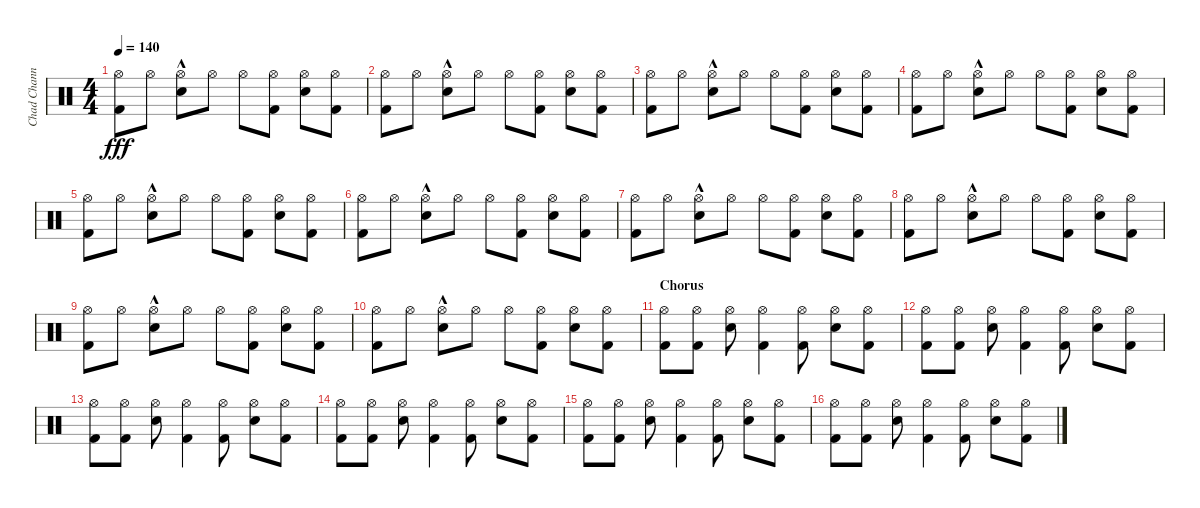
\track ("Chad Channing" "Chad Chann") {instrument percussion}
\staff {score}
\articulation defaults
\ts (4 4)
\tempo 140
\clef neutral
\ks c
("Hi-Hat (open)" "Kick (hit) 2").8{dy fff} "Hi-Hat (open)".8 ("Hi-Hat (open)" "Electric Snare (hit)"{hac}).8 "Hi-Hat (open)".8 "Hi-Hat (open)".8 ("Hi-Hat (open)" "Kick (hit) 2").8 ("Hi-Hat (open)" "Electric Snare (hit)").8 ("Hi-Hat (open)" "Kick (hit) 2").8 |
("Hi-Hat (open)" "Kick (hit) 2").8 "Hi-Hat (open)".8 ("Hi-Hat (open)" "Electric Snare (hit)"{hac}).8 "Hi-Hat (open)".8 "Hi-Hat (open)".8 ("Hi-Hat (open)" "Kick (hit) 2").8 ("Hi-Hat (open)" "Electric Snare (hit)").8 ("Hi-Hat (open)" "Kick (hit) 2").8 |
("Hi-Hat (open)" "Kick (hit) 2").8 "Hi-Hat (open)".8 ("Hi-Hat (open)" "Electric Snare (hit)"{hac}).8 "Hi-Hat (open)".8 "Hi-Hat (open)".8 ("Hi-Hat (open)" "Kick (hit) 2").8 ("Hi-Hat (open)" "Electric Snare (hit)").8 ("Hi-Hat (open)" "Kick (hit) 2").8 |
("Hi-Hat (open)" "Kick (hit) 2").8 "Hi-Hat (open)".8 ("Hi-Hat (open)" "Electric Snare (hit)"{hac}).8 "Hi-Hat (open)".8 "Hi-Hat (open)".8 ("Hi-Hat (open)" "Kick (hit) 2").8 ("Hi-Hat (open)" "Electric Snare (hit)").8 ("Hi-Hat (open)" "Kick (hit) 2").8 |
("Hi-Hat (open)" "Kick (hit) 2").8 "Hi-Hat (open)".8 ("Hi-Hat (open)" "Electric Snare (hit)"{hac}).8 "Hi-Hat (open)".8 "Hi-Hat (open)".8 ("Hi-Hat (open)" "Kick (hit) 2").8 ("Hi-Hat (open)" "Electric Snare (hit)").8 ("Hi-Hat (open)" "Kick (hit) 2").8 |
("Hi-Hat (open)" "Kick (hit) 2").8 "Hi-Hat (open)".8 ("Hi-Hat (open)" "Electric Snare (hit)"{hac}).8 "Hi-Hat (open)".8 "Hi-Hat (open)".8 ("Hi-Hat (open)" "Kick (hit) 2").8 ("Hi-Hat (open)" "Electric Snare (hit)").8 ("Hi-Hat (open)" "Kick (hit) 2").8 |
("Hi-Hat (open)" "Kick (hit) 2").8 "Hi-Hat (open)".8 ("Hi-Hat (open)" "Electric Snare (hit)"{hac}).8 "Hi-Hat (open)".8 "Hi-Hat (open)".8 ("Hi-Hat (open)" "Kick (hit) 2").8 ("Hi-Hat (open)" "Electric Snare (hit)").8 ("Hi-Hat (open)" "Kick (hit) 2").8 |
("Hi-Hat (open)" "Kick (hit) 2").8 "Hi-Hat (open)".8 ("Hi-Hat (open)" "Electric Snare (hit)"{hac}).8 "Hi-Hat (open)".8 "Hi-Hat (open)".8 ("Hi-Hat (open)" "Kick (hit) 2").8 ("Hi-Hat (open)" "Electric Snare (hit)").8 ("Hi-Hat (open)" "Kick (hit) 2").8 |
("Hi-Hat (open)" "Kick (hit) 2").8 "Hi-Hat (open)".8 ("Hi-Hat (open)" "Electric Snare (hit)"{hac}).8 "Hi-Hat (open)".8 "Hi-Hat (open)".8 ("Hi-Hat (open)" "Kick (hit) 2").8 ("Hi-Hat (open)" "Electric Snare (hit)").8 ("Hi-Hat (open)" "Kick (hit) 2").8 |
("Hi-Hat (open)" "Kick (hit) 2").8 "Hi-Hat (open)".8 ("Hi-Hat (open)" "Electric Snare (hit)"{hac}).8 "Hi-Hat (open)".8 "Hi-Hat (open)".8 ("Hi-Hat (open)" "Kick (hit) 2").8 ("Hi-Hat (open)" "Electric Snare (hit)").8 ("Hi-Hat (open)" "Kick (hit) 2").8 |
\section ("" "Chorus")
("Hi-Hat (open)" "Kick (hit) 2").8 ("Hi-Hat (open)" "Kick (hit) 2").8 ("Hi-Hat (open)" "Electric Snare (hit)").8 ("Hi-Hat (open)" "Kick (hit) 2").4 ("Hi-Hat (open)" "Kick (hit) 2").8 ("Hi-Hat (open)" "Electric Snare (hit)").8 ("Hi-Hat (open)" "Kick (hit) 2").8 |
("Hi-Hat (open)" "Kick (hit) 2").8 ("Hi-Hat (open)" "Kick (hit) 2").8 ("Hi-Hat (open)" "Electric Snare (hit)").8 ("Hi-Hat (open)" "Kick (hit) 2").4 ("Hi-Hat (open)" "Kick (hit) 2").8 ("Hi-Hat (open)" "Electric Snare (hit)").8 ("Hi-Hat (open)" "Kick (hit) 2").8 |
("Hi-Hat (open)" "Kick (hit) 2").8 ("Hi-Hat (open)" "Kick (hit) 2").8 ("Hi-Hat (open)" "Electric Snare (hit)").8 ("Hi-Hat (open)" "Kick (hit) 2").4 ("Hi-Hat (open)" "Kick (hit) 2").8 ("Hi-Hat (open)" "Electric Snare (hit)").8 ("Hi-Hat (open)" "Kick (hit) 2").8 |
("Hi-Hat (open)" "Kick (hit) 2").8 ("Hi-Hat (open)" "Kick (hit) 2").8 ("Hi-Hat (open)" "Electric Snare (hit)").8 ("Hi-Hat (open)" "Kick (hit) 2").4 ("Hi-Hat (open)" "Kick (hit) 2").8 ("Hi-Hat (open)" "Electric Snare (hit)").8 ("Hi-Hat (open)" "Kick (hit) 2").8 |
("Hi-Hat (open)" "Kick (hit) 2").8 ("Hi-Hat (open)" "Kick (hit) 2").8 ("Hi-Hat (open)" "Electric Snare (hit)").8 ("Hi-Hat (open)" "Kick (hit) 2").4 ("Hi-Hat (open)" "Kick (hit) 2").8 ("Hi-Hat (open)" "Electric Snare (hit)").8 ("Hi-Hat (open)" "Kick (hit) 2").8 |
("Hi-Hat (open)" "Kick (hit) 2").8 ("Hi-Hat (open)" "Kick (hit) 2").8 ("Hi-Hat (open)" "Electric Snare (hit)").8 ("Hi-Hat (open)" "Kick (hit) 2").4 ("Hi-Hat (open)" "Kick (hit) 2").8 ("Hi-Hat (open)" "Electric Snare (hit)").8 ("Hi-Hat (open)" "Kick (hit) 2").8
